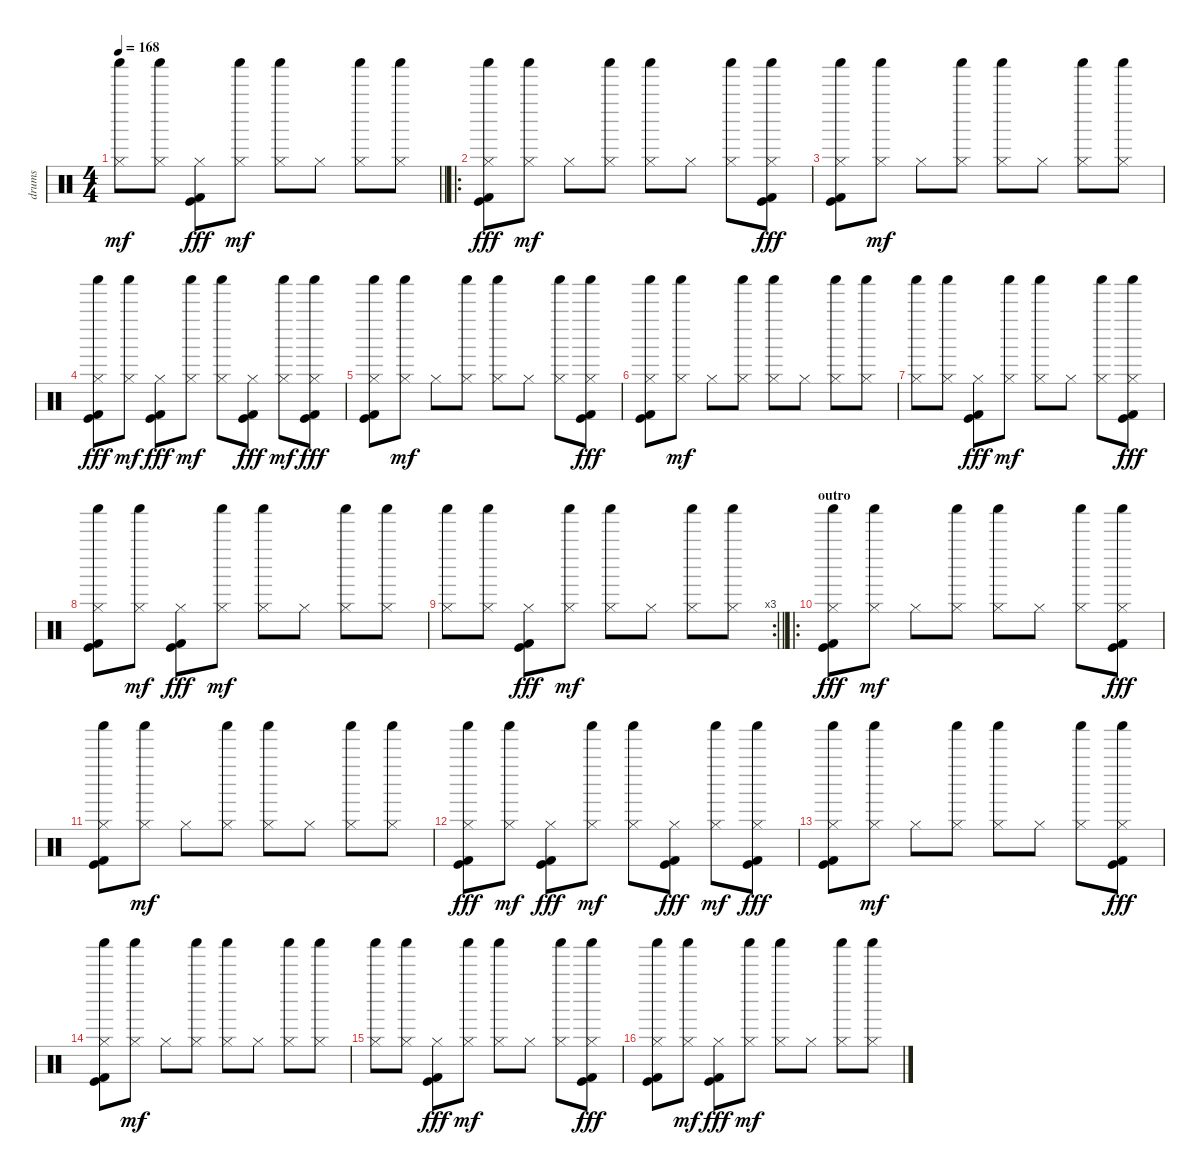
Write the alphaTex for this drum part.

\track ("drums" "drums") {instrument percussion}
\staff {score}
\articulation defaults
\ts (4 4)
\tempo 168
\clef neutral
\barLineRight lightlight
\ks c
("Hi-Hat (closed)" "Shaker (hit)").8{dy mf} ("Hi-Hat (closed)" "Shaker (hit)").8 ("Hi-Hat (closed)" "Kick (hit) 2" "Kick (hit)").8{dy fff} ("Hi-Hat (closed)" "Shaker (hit)").8{dy mf} ("Hi-Hat (closed)" "Shaker (hit)").8 "Hi-Hat (closed)".8 ("Hi-Hat (closed)" "Shaker (hit)").8 ("Hi-Hat (closed)" "Shaker (hit)").8 |
\ro
("Hi-Hat (closed)" "Shaker (hit)" "Kick (hit) 2" "Kick (hit)").8{dy fff} ("Hi-Hat (closed)" "Shaker (hit)").8{dy mf} "Hi-Hat (closed)".8 ("Hi-Hat (closed)" "Shaker (hit)").8 ("Hi-Hat (closed)" "Shaker (hit)").8 "Hi-Hat (closed)".8 ("Hi-Hat (closed)" "Shaker (hit)").8 ("Hi-Hat (closed)" "Shaker (hit)" "Kick (hit) 2" "Kick (hit)").8{dy fff} |
("Hi-Hat (closed)" "Shaker (hit)" "Kick (hit) 2" "Kick (hit)").8 ("Hi-Hat (closed)" "Shaker (hit)").8{dy mf} "Hi-Hat (closed)".8 ("Hi-Hat (closed)" "Shaker (hit)").8 ("Hi-Hat (closed)" "Shaker (hit)").8 "Hi-Hat (closed)".8 ("Hi-Hat (closed)" "Shaker (hit)").8 ("Hi-Hat (closed)" "Shaker (hit)").8 |
("Hi-Hat (closed)" "Shaker (hit)" "Kick (hit) 2" "Kick (hit)").8{dy fff} ("Hi-Hat (closed)" "Shaker (hit)").8{dy mf} ("Hi-Hat (closed)" "Kick (hit) 2" "Kick (hit)").8{dy fff} ("Hi-Hat (closed)" "Shaker (hit)").8{dy mf} ("Hi-Hat (closed)" "Shaker (hit)").8 ("Hi-Hat (closed)" "Kick (hit) 2" "Kick (hit)").8{dy fff} ("Hi-Hat (closed)" "Shaker (hit)").8{dy mf} ("Hi-Hat (closed)" "Shaker (hit)" "Kick (hit) 2" "Kick (hit)").8{dy fff} |
("Hi-Hat (closed)" "Shaker (hit)" "Kick (hit) 2" "Kick (hit)").8 ("Hi-Hat (closed)" "Shaker (hit)").8{dy mf} "Hi-Hat (closed)".8 ("Hi-Hat (closed)" "Shaker (hit)").8 ("Hi-Hat (closed)" "Shaker (hit)").8 "Hi-Hat (closed)".8 ("Hi-Hat (closed)" "Shaker (hit)").8 ("Hi-Hat (closed)" "Shaker (hit)" "Kick (hit) 2" "Kick (hit)").8{dy fff} |
("Hi-Hat (closed)" "Shaker (hit)" "Kick (hit) 2" "Kick (hit)").8 ("Hi-Hat (closed)" "Shaker (hit)").8{dy mf} "Hi-Hat (closed)".8 ("Hi-Hat (closed)" "Shaker (hit)").8 ("Hi-Hat (closed)" "Shaker (hit)").8 "Hi-Hat (closed)".8 ("Hi-Hat (closed)" "Shaker (hit)").8 ("Hi-Hat (closed)" "Shaker (hit)").8 |
("Hi-Hat (closed)" "Shaker (hit)").8 ("Hi-Hat (closed)" "Shaker (hit)").8 ("Hi-Hat (closed)" "Kick (hit) 2" "Kick (hit)").8{dy fff} ("Hi-Hat (closed)" "Shaker (hit)").8{dy mf} ("Hi-Hat (closed)" "Shaker (hit)").8 "Hi-Hat (closed)".8 ("Hi-Hat (closed)" "Shaker (hit)").8 ("Hi-Hat (closed)" "Shaker (hit)" "Kick (hit) 2" "Kick (hit)").8{dy fff} |
("Hi-Hat (closed)" "Shaker (hit)" "Kick (hit) 2" "Kick (hit)").8 ("Hi-Hat (closed)" "Shaker (hit)").8{dy mf} ("Hi-Hat (closed)" "Kick (hit) 2" "Kick (hit)").8{dy fff} ("Hi-Hat (closed)" "Shaker (hit)").8{dy mf} ("Hi-Hat (closed)" "Shaker (hit)").8 "Hi-Hat (closed)".8 ("Hi-Hat (closed)" "Shaker (hit)").8 ("Hi-Hat (closed)" "Shaker (hit)").8 |
\rc 3
\barLineRight lightlight
("Hi-Hat (closed)" "Shaker (hit)").8 ("Hi-Hat (closed)" "Shaker (hit)").8 ("Hi-Hat (closed)" "Kick (hit) 2" "Kick (hit)").8{dy fff} ("Hi-Hat (closed)" "Shaker (hit)").8{dy mf} ("Hi-Hat (closed)" "Shaker (hit)").8 "Hi-Hat (closed)".8 ("Hi-Hat (closed)" "Shaker (hit)").8 ("Hi-Hat (closed)" "Shaker (hit)").8 |
\ro
\section ("" "outro")
("Hi-Hat (closed)" "Shaker (hit)" "Kick (hit) 2" "Kick (hit)").8{dy fff} ("Hi-Hat (closed)" "Shaker (hit)").8{dy mf} "Hi-Hat (closed)".8 ("Hi-Hat (closed)" "Shaker (hit)").8 ("Hi-Hat (closed)" "Shaker (hit)").8 "Hi-Hat (closed)".8 ("Hi-Hat (closed)" "Shaker (hit)").8 ("Hi-Hat (closed)" "Shaker (hit)" "Kick (hit) 2" "Kick (hit)").8{dy fff} |
("Hi-Hat (closed)" "Shaker (hit)" "Kick (hit) 2" "Kick (hit)").8 ("Hi-Hat (closed)" "Shaker (hit)").8{dy mf} "Hi-Hat (closed)".8 ("Hi-Hat (closed)" "Shaker (hit)").8 ("Hi-Hat (closed)" "Shaker (hit)").8 "Hi-Hat (closed)".8 ("Hi-Hat (closed)" "Shaker (hit)").8 ("Hi-Hat (closed)" "Shaker (hit)").8 |
("Hi-Hat (closed)" "Shaker (hit)" "Kick (hit) 2" "Kick (hit)").8{dy fff} ("Hi-Hat (closed)" "Shaker (hit)").8{dy mf} ("Hi-Hat (closed)" "Kick (hit) 2" "Kick (hit)").8{dy fff} ("Hi-Hat (closed)" "Shaker (hit)").8{dy mf} ("Hi-Hat (closed)" "Shaker (hit)").8 ("Hi-Hat (closed)" "Kick (hit) 2" "Kick (hit)").8{dy fff} ("Hi-Hat (closed)" "Shaker (hit)").8{dy mf} ("Hi-Hat (closed)" "Shaker (hit)" "Kick (hit) 2" "Kick (hit)").8{dy fff} |
("Hi-Hat (closed)" "Shaker (hit)" "Kick (hit) 2" "Kick (hit)").8 ("Hi-Hat (closed)" "Shaker (hit)").8{dy mf} "Hi-Hat (closed)".8 ("Hi-Hat (closed)" "Shaker (hit)").8 ("Hi-Hat (closed)" "Shaker (hit)").8 "Hi-Hat (closed)".8 ("Hi-Hat (closed)" "Shaker (hit)").8 ("Hi-Hat (closed)" "Shaker (hit)" "Kick (hit) 2" "Kick (hit)").8{dy fff} |
("Hi-Hat (closed)" "Shaker (hit)" "Kick (hit) 2" "Kick (hit)").8 ("Hi-Hat (closed)" "Shaker (hit)").8{dy mf} "Hi-Hat (closed)".8 ("Hi-Hat (closed)" "Shaker (hit)").8 ("Hi-Hat (closed)" "Shaker (hit)").8 "Hi-Hat (closed)".8 ("Hi-Hat (closed)" "Shaker (hit)").8 ("Hi-Hat (closed)" "Shaker (hit)").8 |
("Hi-Hat (closed)" "Shaker (hit)").8 ("Hi-Hat (closed)" "Shaker (hit)").8 ("Hi-Hat (closed)" "Kick (hit) 2" "Kick (hit)").8{dy fff} ("Hi-Hat (closed)" "Shaker (hit)").8{dy mf} ("Hi-Hat (closed)" "Shaker (hit)").8 "Hi-Hat (closed)".8 ("Hi-Hat (closed)" "Shaker (hit)").8 ("Hi-Hat (closed)" "Shaker (hit)" "Kick (hit) 2" "Kick (hit)").8{dy fff} |
("Hi-Hat (closed)" "Shaker (hit)" "Kick (hit) 2" "Kick (hit)").8 ("Hi-Hat (closed)" "Shaker (hit)").8{dy mf} ("Hi-Hat (closed)" "Kick (hit) 2" "Kick (hit)").8{dy fff} ("Hi-Hat (closed)" "Shaker (hit)").8{dy mf} ("Hi-Hat (closed)" "Shaker (hit)").8 "Hi-Hat (closed)".8 ("Hi-Hat (closed)" "Shaker (hit)").8 ("Hi-Hat (closed)" "Shaker (hit)").8
